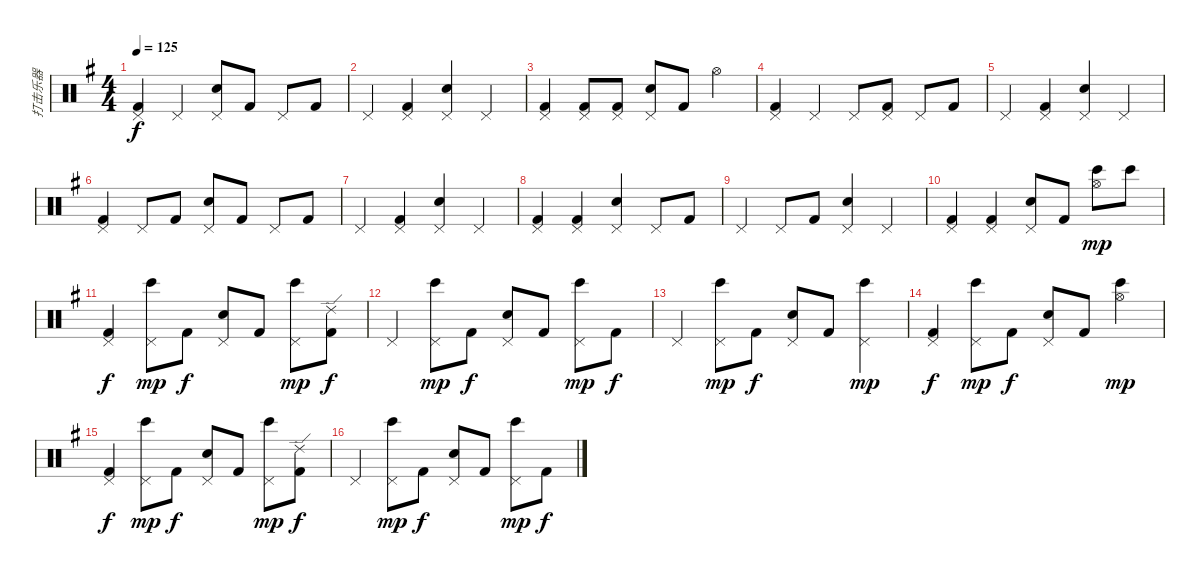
\track ("打击乐器" "打击乐器") {instrument percussion}
\staff {score}
\articulation defaults
\ts (4 4)
\tempo 125
\clef neutral
\ks g
("Pedal Hi-Hat (hit)" "Kick (hit) 2").4{dy f} "Pedal Hi-Hat (hit)".4 ("Pedal Hi-Hat (hit)" "Snare (hit) 2").8 "Kick (hit) 2".8 "Pedal Hi-Hat (hit)".8 "Kick (hit) 2".8 |
"Pedal Hi-Hat (hit)".4 ("Pedal Hi-Hat (hit)" "Kick (hit) 2").4 ("Pedal Hi-Hat (hit)" "Snare (hit) 2").4 "Pedal Hi-Hat (hit)".4 |
("Pedal Hi-Hat (hit)" "Kick (hit) 2").4 ("Pedal Hi-Hat (hit)" "Kick (hit) 2").8 ("Pedal Hi-Hat (hit)" "Kick (hit) 2").8 ("Pedal Hi-Hat (hit)" "Snare (hit) 2").8 "Kick (hit) 2".8 "Hi-Hat (open)".4 |
("Pedal Hi-Hat (hit)" "Kick (hit) 2").4 "Pedal Hi-Hat (hit)".4 "Pedal Hi-Hat (hit)".8 ("Pedal Hi-Hat (hit)" "Kick (hit) 2").8 "Pedal Hi-Hat (hit)".8 "Kick (hit) 2".8 |
"Pedal Hi-Hat (hit)".4 ("Pedal Hi-Hat (hit)" "Kick (hit) 2").4 ("Pedal Hi-Hat (hit)" "Snare (hit) 2").4 "Pedal Hi-Hat (hit)".4 |
("Pedal Hi-Hat (hit)" "Kick (hit) 2").4 "Pedal Hi-Hat (hit)".8 "Kick (hit) 2".8 ("Pedal Hi-Hat (hit)" "Snare (hit) 2").8 "Kick (hit) 2".8 "Pedal Hi-Hat (hit)".8 "Kick (hit) 2".8 |
"Pedal Hi-Hat (hit)".4 ("Pedal Hi-Hat (hit)" "Kick (hit) 2").4 ("Pedal Hi-Hat (hit)" "Snare (hit) 2").4 "Pedal Hi-Hat (hit)".4 |
("Pedal Hi-Hat (hit)" "Kick (hit) 2").4 ("Pedal Hi-Hat (hit)" "Kick (hit) 2").4 ("Pedal Hi-Hat (hit)" "Snare (hit) 2").4 "Pedal Hi-Hat (hit)".8 "Kick (hit) 2".8 |
"Pedal Hi-Hat (hit)".4 "Pedal Hi-Hat (hit)".8 "Kick (hit) 2".8 ("Pedal Hi-Hat (hit)" "Snare (hit) 2").4 "Pedal Hi-Hat (hit)".4 |
("Pedal Hi-Hat (hit)" "Kick (hit) 2").4 ("Pedal Hi-Hat (hit)" "Kick (hit) 2").4 ("Pedal Hi-Hat (hit)" "Snare (hit) 2").8 "Kick (hit) 2".8 ("Hi-Hat (open)" "Bongo High (hit)").8{dy mp} "Bongo High (hit)".8 |
("Pedal Hi-Hat (hit)" "Kick (hit) 2").4{dy f} ("Pedal Hi-Hat (hit)" "Bongo High (hit)").8{dy mp} "Kick (hit) 2".8{dy f} ("Pedal Hi-Hat (hit)" "Snare (hit) 2").8 "Kick (hit) 2".8 ("Pedal Hi-Hat (hit)" "Bongo High (hit)").8{dy mp} ("Ride (edge) 2" "Kick (hit) 2").8{dy f} |
"Pedal Hi-Hat (hit)".4 ("Pedal Hi-Hat (hit)" "Bongo High (hit)").8{dy mp} "Kick (hit) 2".8{dy f} ("Pedal Hi-Hat (hit)" "Snare (hit) 2").8 "Kick (hit) 2".8 ("Pedal Hi-Hat (hit)" "Bongo High (hit)").8{dy mp} "Kick (hit) 2".8{dy f} |
"Pedal Hi-Hat (hit)".4 ("Pedal Hi-Hat (hit)" "Bongo High (hit)").8{dy mp} "Kick (hit) 2".8{dy f} ("Pedal Hi-Hat (hit)" "Snare (hit) 2").8 "Kick (hit) 2".8 ("Pedal Hi-Hat (hit)" "Bongo High (hit)").4{dy mp} |
("Pedal Hi-Hat (hit)" "Kick (hit) 2").4{dy f} ("Pedal Hi-Hat (hit)" "Bongo High (hit)").8{dy mp} "Kick (hit) 2".8{dy f} ("Pedal Hi-Hat (hit)" "Snare (hit) 2").8 "Kick (hit) 2".8 ("Hi-Hat (open)" "Bongo High (hit)").4{dy mp} |
("Pedal Hi-Hat (hit)" "Kick (hit) 2").4{dy f} ("Pedal Hi-Hat (hit)" "Bongo High (hit)").8{dy mp} "Kick (hit) 2".8{dy f} ("Pedal Hi-Hat (hit)" "Snare (hit) 2").8 "Kick (hit) 2".8 ("Pedal Hi-Hat (hit)" "Bongo High (hit)").8{dy mp} ("Ride (edge) 2" "Kick (hit) 2").8{dy f} |
"Pedal Hi-Hat (hit)".4 ("Pedal Hi-Hat (hit)" "Bongo High (hit)").8{dy mp} "Kick (hit) 2".8{dy f} ("Pedal Hi-Hat (hit)" "Snare (hit) 2").8 "Kick (hit) 2".8 ("Pedal Hi-Hat (hit)" "Bongo High (hit)").8{dy mp} "Kick (hit) 2".8{dy f}
